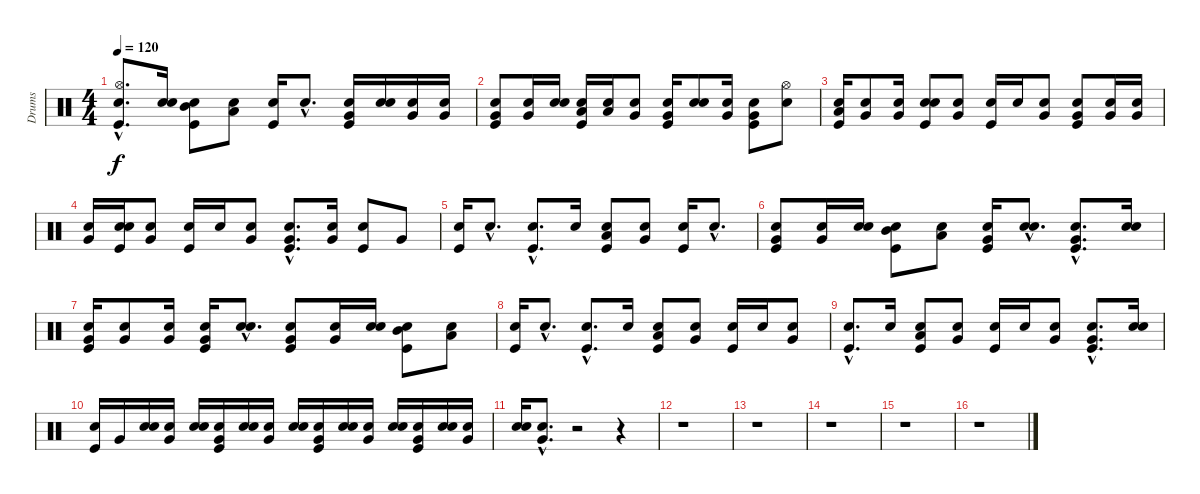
\track ("Drums" "Drums") {instrument percussion}
\staff {score}
\articulation defaults
\ts (4 4)
\tempo 120
\clef neutral
\ks c
("Snare (hit)"{hac} "Hi-Hat (open)"{hac} "Kick (hit)"{hac}).8{d dy f} ("Snare (hit)" "Electric Snare (hit)").16 ("Snare (hit)" "Mid Tom (hit)" "Kick (hit)").8 ("Snare (hit)" "Low Tom (hit)").8 ("Snare (hit)" "Kick (hit)").16 "Electric Snare (hit)"{hac}.8{d} ("Snare (hit)" "Very Low Tom (hit)" "Kick (hit)").16 ("Snare (hit)" "Electric Snare (hit)").16 ("Snare (hit)" "Very Low Tom (hit)").16 ("Snare (hit)" "Very Low Tom (hit)").16 |
("Snare (hit)" "Very Low Tom (hit)" "Kick (hit)").8 ("Snare (hit)" "Very Low Tom (hit)").16 ("Snare (hit)" "Electric Snare (hit)").16 ("Snare (hit)" "Low Tom (hit)" "Kick (hit)").16 ("Snare (hit)" "Low Tom (hit)").16 ("Snare (hit)" "Very Low Tom (hit)").8 ("Snare (hit)" "Very Low Tom (hit)" "Kick (hit)").16 ("Snare (hit)" "Electric Snare (hit)").8 ("Snare (hit)" "Very Low Tom (hit)").16 ("Snare (hit)" "Very Low Tom (hit)" "Kick (hit)").8 ("Snare (hit)" "Hi-Hat (open)").8 |
("Snare (hit)" "Low Tom (hit)" "Kick (hit)").16 ("Snare (hit)" "Very Low Tom (hit)").8 ("Snare (hit)" "Very Low Tom (hit)").16 ("Snare (hit)" "Electric Snare (hit)" "Kick (hit)").8 ("Snare (hit)" "Very Low Tom (hit)").8 ("Snare (hit)" "Kick (hit)").16 "Electric Snare (hit)".16 ("Snare (hit)" "Very Low Tom (hit)").8 ("Snare (hit)" "Very Low Tom (hit)" "Kick (hit)").8 ("Snare (hit)" "Very Low Tom (hit)").16 ("Snare (hit)" "Very Low Tom (hit)").16 |
("Snare (hit)" "Very Low Tom (hit)").16 ("Snare (hit)" "Electric Snare (hit)" "Kick (hit)").16 ("Snare (hit)" "Very Low Tom (hit)").8 ("Snare (hit)" "Kick (hit)").16 "Electric Snare (hit)".16 ("Snare (hit)" "Very Low Tom (hit)").8 ("Snare (hit)"{hac} "Very Low Tom (hit)"{hac} "Kick (hit)"{hac}).8{d} ("Snare (hit)" "Very Low Tom (hit)").16 ("Snare (hit)" "Kick (hit)").8 "Very Low Tom (hit)".8 |
("Snare (hit)" "Kick (hit)").16 "Electric Snare (hit)"{hac}.8{d} ("Snare (hit)"{hac} "Kick (hit)"{hac}).8{d} "Electric Snare (hit)".16 ("Snare (hit)" "Low Tom (hit)" "Kick (hit)").8 ("Snare (hit)" "Very Low Tom (hit)").8 ("Snare (hit)" "Kick (hit)").16 "Electric Snare (hit)"{hac}.8{d} |
("Snare (hit)" "Very Low Tom (hit)" "Kick (hit)").8 ("Snare (hit)" "Very Low Tom (hit)").16 ("Snare (hit)" "Electric Snare (hit)").16 ("Snare (hit)" "Mid Tom (hit)" "Kick (hit)").8 ("Snare (hit)" "Low Tom (hit)").8 ("Snare (hit)" "Very Low Tom (hit)" "Kick (hit)").16 ("Snare (hit)"{hac} "Electric Snare (hit)"{hac}).8{d} ("Snare (hit)"{hac} "Very Low Tom (hit)"{hac} "Kick (hit)"{hac}).8{d} ("Snare (hit)" "Electric Snare (hit)").16 |
("Snare (hit)" "Very Low Tom (hit)" "Kick (hit)").16 ("Snare (hit)" "Very Low Tom (hit)").8 ("Snare (hit)" "Very Low Tom (hit)").16 ("Snare (hit)" "Very Low Tom (hit)" "Kick (hit)").16 ("Snare (hit)"{hac} "Electric Snare (hit)"{hac}).8{d} ("Snare (hit)" "Very Low Tom (hit)" "Kick (hit)").8 ("Snare (hit)" "Very Low Tom (hit)").16 ("Snare (hit)" "Electric Snare (hit)").16 ("Snare (hit)" "Mid Tom (hit)" "Kick (hit)").8 ("Snare (hit)" "Low Tom (hit)").8 |
("Snare (hit)" "Kick (hit)").16 "Electric Snare (hit)"{hac}.8{d} ("Snare (hit)"{hac} "Kick (hit)"{hac}).8{d} "Electric Snare (hit)".16 ("Snare (hit)" "Low Tom (hit)" "Kick (hit)").8 ("Snare (hit)" "Very Low Tom (hit)").8 ("Snare (hit)" "Kick (hit)").16 "Electric Snare (hit)".16 ("Snare (hit)" "Very Low Tom (hit)").8 |
("Snare (hit)"{hac} "Kick (hit)"{hac}).8{d} "Electric Snare (hit)".16 ("Snare (hit)" "Low Tom (hit)" "Kick (hit)").8 ("Snare (hit)" "Very Low Tom (hit)").8 ("Snare (hit)" "Kick (hit)").16 "Electric Snare (hit)".16 ("Snare (hit)" "Very Low Tom (hit)").8 ("Snare (hit)"{hac} "Very Low Tom (hit)"{hac} "Kick (hit)"{hac}).8{d} ("Snare (hit)" "Electric Snare (hit)").16 |
("Snare (hit)" "Kick (hit)").16 "Very Low Tom (hit)".16 ("Snare (hit)" "Electric Snare (hit)").16 ("Snare (hit)" "Very Low Tom (hit)").16 ("Snare (hit)" "Electric Snare (hit)").16 ("Snare (hit)" "Kick (hit)" "Very Low Tom (hit)").16 ("Snare (hit)" "Electric Snare (hit)").16 ("Snare (hit)" "Very Low Tom (hit)").16 ("Snare (hit)" "Electric Snare (hit)").16 ("Snare (hit)" "Kick (hit)" "Very Low Tom (hit)").16 ("Snare (hit)" "Electric Snare (hit)").16 ("Snare (hit)" "Very Low Tom (hit)").16 ("Snare (hit)" "Electric Snare (hit)").16 ("Snare (hit)" "Kick (hit)" "Very Low Tom (hit)").16 ("Snare (hit)" "Electric Snare (hit)").16 ("Snare (hit)" "Very Low Tom (hit)").16 |
("Snare (hit)" "Electric Snare (hit)").16 ("Snare (hit)"{hac} "Very Low Tom (hit)"{hac}).8{d} r.2 r.4 |
r.1 |
r.1 |
r.1 |
r.1 |
r.1
